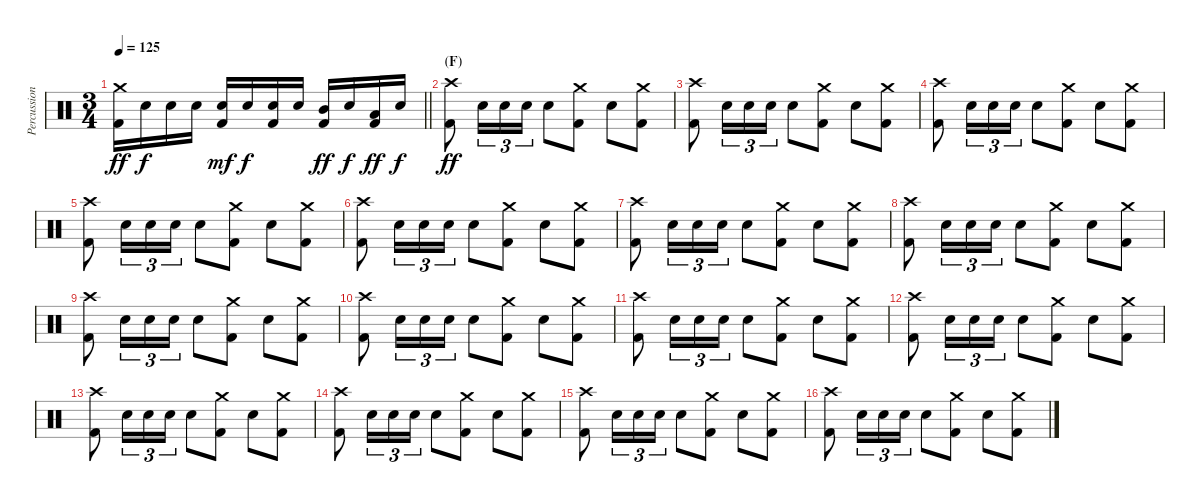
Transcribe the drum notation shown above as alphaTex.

\track ("Percussion" "Percussion") {instrument percussion}
\staff {score}
\articulation defaults
\ts (3 4)
\tempo 125
\clef neutral
\barLineRight lightlight
\ks c
("Crash medium (hit)" "Kick (hit) 2").16{dy ff} "Snare (hit) 2".16{dy f} "Snare (hit) 2".16 "Snare (hit) 2".16 ("Snare (hit) 2" "Kick (hit) 2").16{dy mf} "Snare (hit) 2".16{dy f} ("Snare (hit) 2" "Kick (hit) 2").16 "Snare (hit) 2".16 ("Mid Tom (hit)" "Kick (hit) 2").16{dy ff} "Snare (hit) 2".16{dy f} ("Low Tom (hit)" "Kick (hit) 2").16{dy ff} "Snare (hit) 2".16{dy f} |
\section ("" "(F)")
("Crash high (hit)" "Kick (hit) 2").8{dy ff} "Snare (hit) 2".16{tu (3 2)} "Snare (hit) 2".16{tu (3 2)} "Snare (hit) 2".16{tu (3 2)} "Snare (hit) 2".8 ("Crash medium (hit)" "Kick (hit) 2").8 "Snare (hit) 2".8 ("Crash medium (hit)" "Kick (hit) 2").8 |
("Crash high (hit)" "Kick (hit) 2").8 "Snare (hit) 2".16{tu (3 2)} "Snare (hit) 2".16{tu (3 2)} "Snare (hit) 2".16{tu (3 2)} "Snare (hit) 2".8 ("Crash medium (hit)" "Kick (hit) 2").8 "Snare (hit) 2".8 ("Crash medium (hit)" "Kick (hit) 2").8 |
("Crash high (hit)" "Kick (hit) 2").8 "Snare (hit) 2".16{tu (3 2)} "Snare (hit) 2".16{tu (3 2)} "Snare (hit) 2".16{tu (3 2)} "Snare (hit) 2".8 ("Crash medium (hit)" "Kick (hit) 2").8 "Snare (hit) 2".8 ("Crash medium (hit)" "Kick (hit) 2").8 |
("Crash high (hit)" "Kick (hit) 2").8 "Snare (hit) 2".16{tu (3 2)} "Snare (hit) 2".16{tu (3 2)} "Snare (hit) 2".16{tu (3 2)} "Snare (hit) 2".8 ("Crash medium (hit)" "Kick (hit) 2").8 "Snare (hit) 2".8 ("Crash medium (hit)" "Kick (hit) 2").8 |
("Crash high (hit)" "Kick (hit) 2").8 "Snare (hit) 2".16{tu (3 2)} "Snare (hit) 2".16{tu (3 2)} "Snare (hit) 2".16{tu (3 2)} "Snare (hit) 2".8 ("Crash medium (hit)" "Kick (hit) 2").8 "Snare (hit) 2".8 ("Crash medium (hit)" "Kick (hit) 2").8 |
("Crash high (hit)" "Kick (hit) 2").8 "Snare (hit) 2".16{tu (3 2)} "Snare (hit) 2".16{tu (3 2)} "Snare (hit) 2".16{tu (3 2)} "Snare (hit) 2".8 ("Crash medium (hit)" "Kick (hit) 2").8 "Snare (hit) 2".8 ("Crash medium (hit)" "Kick (hit) 2").8 |
("Crash high (hit)" "Kick (hit) 2").8 "Snare (hit) 2".16{tu (3 2)} "Snare (hit) 2".16{tu (3 2)} "Snare (hit) 2".16{tu (3 2)} "Snare (hit) 2".8 ("Crash medium (hit)" "Kick (hit) 2").8 "Snare (hit) 2".8 ("Crash medium (hit)" "Kick (hit) 2").8 |
("Crash high (hit)" "Kick (hit) 2").8 "Snare (hit) 2".16{tu (3 2)} "Snare (hit) 2".16{tu (3 2)} "Snare (hit) 2".16{tu (3 2)} "Snare (hit) 2".8 ("Crash medium (hit)" "Kick (hit) 2").8 "Snare (hit) 2".8 ("Crash medium (hit)" "Kick (hit) 2").8 |
("Crash high (hit)" "Kick (hit) 2").8 "Snare (hit) 2".16{tu (3 2)} "Snare (hit) 2".16{tu (3 2)} "Snare (hit) 2".16{tu (3 2)} "Snare (hit) 2".8 ("Crash medium (hit)" "Kick (hit) 2").8 "Snare (hit) 2".8 ("Crash medium (hit)" "Kick (hit) 2").8 |
("Crash high (hit)" "Kick (hit) 2").8 "Snare (hit) 2".16{tu (3 2)} "Snare (hit) 2".16{tu (3 2)} "Snare (hit) 2".16{tu (3 2)} "Snare (hit) 2".8 ("Crash medium (hit)" "Kick (hit) 2").8 "Snare (hit) 2".8 ("Crash medium (hit)" "Kick (hit) 2").8 |
("Crash high (hit)" "Kick (hit) 2").8 "Snare (hit) 2".16{tu (3 2)} "Snare (hit) 2".16{tu (3 2)} "Snare (hit) 2".16{tu (3 2)} "Snare (hit) 2".8 ("Crash medium (hit)" "Kick (hit) 2").8 "Snare (hit) 2".8 ("Crash medium (hit)" "Kick (hit) 2").8 |
("Crash high (hit)" "Kick (hit) 2").8 "Snare (hit) 2".16{tu (3 2)} "Snare (hit) 2".16{tu (3 2)} "Snare (hit) 2".16{tu (3 2)} "Snare (hit) 2".8 ("Crash medium (hit)" "Kick (hit) 2").8 "Snare (hit) 2".8 ("Crash medium (hit)" "Kick (hit) 2").8 |
("Crash high (hit)" "Kick (hit) 2").8 "Snare (hit) 2".16{tu (3 2)} "Snare (hit) 2".16{tu (3 2)} "Snare (hit) 2".16{tu (3 2)} "Snare (hit) 2".8 ("Crash medium (hit)" "Kick (hit) 2").8 "Snare (hit) 2".8 ("Crash medium (hit)" "Kick (hit) 2").8 |
("Crash high (hit)" "Kick (hit) 2").8 "Snare (hit) 2".16{tu (3 2)} "Snare (hit) 2".16{tu (3 2)} "Snare (hit) 2".16{tu (3 2)} "Snare (hit) 2".8 ("Crash medium (hit)" "Kick (hit) 2").8 "Snare (hit) 2".8 ("Crash medium (hit)" "Kick (hit) 2").8 |
("Crash high (hit)" "Kick (hit) 2").8 "Snare (hit) 2".16{tu (3 2)} "Snare (hit) 2".16{tu (3 2)} "Snare (hit) 2".16{tu (3 2)} "Snare (hit) 2".8 ("Crash medium (hit)" "Kick (hit) 2").8 "Snare (hit) 2".8 ("Crash medium (hit)" "Kick (hit) 2").8
